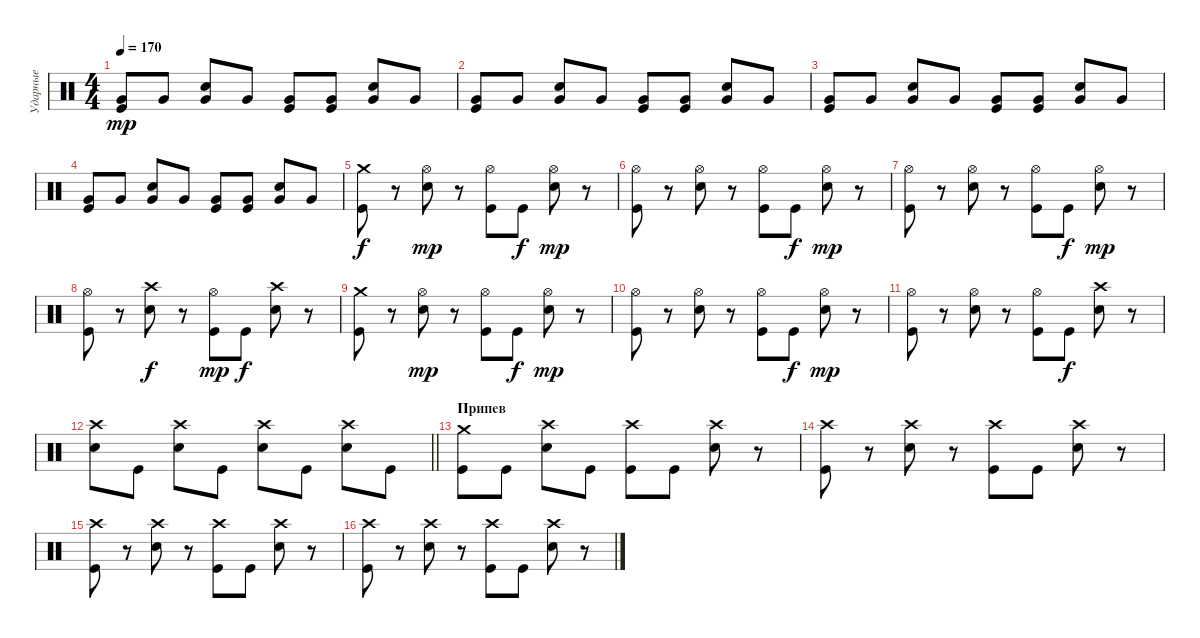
\track ("Ударные" "Ударные") {instrument percussion}
\staff {score}
\articulation defaults
\ts (4 4)
\tempo 170
\clef neutral
\ks c
("Very Low Tom (hit)" "Kick (hit)").8{dy mp} "Very Low Tom (hit)".8 ("Very Low Tom (hit)" "Electric Snare (hit)").8 "Very Low Tom (hit)".8 ("Very Low Tom (hit)" "Kick (hit)").8 ("Very Low Tom (hit)" "Kick (hit)").8 ("Very Low Tom (hit)" "Electric Snare (hit)").8 "Very Low Tom (hit)".8 |
("Very Low Tom (hit)" "Kick (hit)").8 "Very Low Tom (hit)".8 ("Very Low Tom (hit)" "Electric Snare (hit)").8 "Very Low Tom (hit)".8 ("Very Low Tom (hit)" "Kick (hit)").8 ("Very Low Tom (hit)" "Kick (hit)").8 ("Very Low Tom (hit)" "Electric Snare (hit)").8 "Very Low Tom (hit)".8 |
("Very Low Tom (hit)" "Kick (hit)").8 "Very Low Tom (hit)".8 ("Very Low Tom (hit)" "Electric Snare (hit)").8 "Very Low Tom (hit)".8 ("Very Low Tom (hit)" "Kick (hit)").8 ("Very Low Tom (hit)" "Kick (hit)").8 ("Very Low Tom (hit)" "Electric Snare (hit)").8 "Very Low Tom (hit)".8 |
("Very Low Tom (hit)" "Kick (hit)").8 "Very Low Tom (hit)".8 ("Very Low Tom (hit)" "Electric Snare (hit)").8 "Very Low Tom (hit)".8 ("Very Low Tom (hit)" "Kick (hit)").8 ("Very Low Tom (hit)" "Kick (hit)").8 ("Very Low Tom (hit)" "Electric Snare (hit)").8 "Very Low Tom (hit)".8 |
("Crash medium (hit)" "Kick (hit)").8{dy f} r.8 ("Hi-Hat (open)" "Electric Snare (hit)").8{dy mp} r.8 ("Hi-Hat (open)" "Kick (hit)").8 "Kick (hit)".8{dy f} ("Hi-Hat (open)" "Electric Snare (hit)").8{dy mp} r.8 |
("Hi-Hat (open)" "Kick (hit)").8 r.8 ("Hi-Hat (open)" "Electric Snare (hit)").8 r.8 ("Hi-Hat (open)" "Kick (hit)").8 "Kick (hit)".8{dy f} ("Hi-Hat (open)" "Electric Snare (hit)").8{dy mp} r.8 |
("Hi-Hat (open)" "Kick (hit)").8 r.8 ("Hi-Hat (open)" "Electric Snare (hit)").8 r.8 ("Hi-Hat (open)" "Kick (hit)").8 "Kick (hit)".8{dy f} ("Hi-Hat (open)" "Electric Snare (hit)").8{dy mp} r.8 |
("Hi-Hat (open)" "Kick (hit)").8 r.8 ("Crash high (hit)" "Electric Snare (hit)").8{dy f} r.8 ("Hi-Hat (open)" "Kick (hit)").8{dy mp} "Kick (hit)".8{dy f} ("Crash high (hit)" "Electric Snare (hit)").8 r.8 |
("Crash medium (hit)" "Kick (hit)").8 r.8 ("Hi-Hat (open)" "Electric Snare (hit)").8{dy mp} r.8 ("Hi-Hat (open)" "Kick (hit)").8 "Kick (hit)".8{dy f} ("Hi-Hat (open)" "Electric Snare (hit)").8{dy mp} r.8 |
("Hi-Hat (open)" "Kick (hit)").8 r.8 ("Hi-Hat (open)" "Electric Snare (hit)").8 r.8 ("Hi-Hat (open)" "Kick (hit)").8 "Kick (hit)".8{dy f} ("Hi-Hat (open)" "Electric Snare (hit)").8{dy mp} r.8 |
("Hi-Hat (open)" "Kick (hit)").8 r.8 ("Hi-Hat (open)" "Electric Snare (hit)").8 r.8 ("Hi-Hat (open)" "Kick (hit)").8 "Kick (hit)".8{dy f} ("Crash high (hit)" "Electric Snare (hit)").8 r.8 |
\barLineRight lightlight
("Electric Snare (hit)" "Crash high (hit)").8 "Kick (hit)".8 ("Electric Snare (hit)" "Crash high (hit)").8 "Kick (hit)".8 ("Electric Snare (hit)" "Crash high (hit)").8 "Kick (hit)".8 ("Electric Snare (hit)" "Crash high (hit)").8 "Kick (hit)".8 |
\section ("" "Припев")
("Crash medium (hit)" "Kick (hit)").8 "Kick (hit)".8 ("Crash high (hit)" "Electric Snare (hit)").8 "Kick (hit)".8 ("Crash high (hit)" "Kick (hit)").8 "Kick (hit)".8 ("Crash high (hit)" "Electric Snare (hit)").8 r.8 |
("Crash high (hit)" "Kick (hit)").8 r.8 ("Crash high (hit)" "Electric Snare (hit)").8 r.8 ("Crash high (hit)" "Kick (hit)").8 "Kick (hit)".8 ("Crash high (hit)" "Electric Snare (hit)").8 r.8 |
("Crash high (hit)" "Kick (hit)").8 r.8 ("Crash high (hit)" "Electric Snare (hit)").8 r.8 ("Crash high (hit)" "Kick (hit)").8 "Kick (hit)".8 ("Crash high (hit)" "Electric Snare (hit)").8 r.8 |
("Crash high (hit)" "Kick (hit)").8 r.8 ("Crash high (hit)" "Electric Snare (hit)").8 r.8 ("Crash high (hit)" "Kick (hit)").8 "Kick (hit)".8 ("Crash high (hit)" "Electric Snare (hit)").8 r.8
